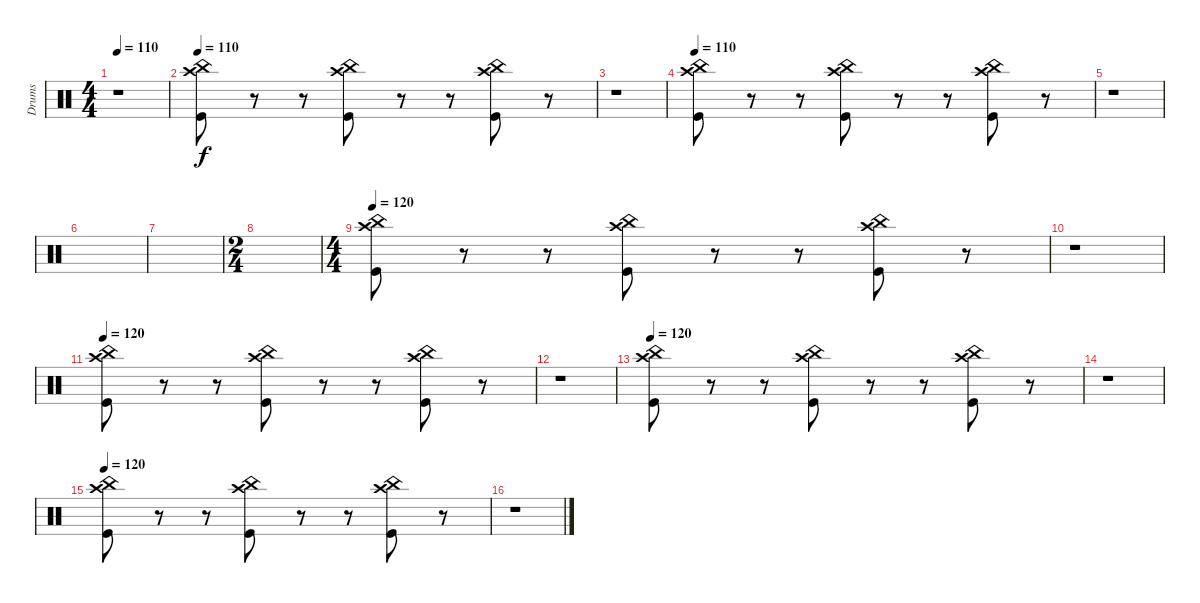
\track ("Drums" "Drums") {instrument percussion}
\staff {score}
\articulation defaults
\ts (4 4)
\tempo 110
\clef neutral
\ks c
r.1{dy f} |
\tempo 110
("Crash high (hit)" "China (hit)" "Kick (hit)").8 r.8 r.8 ("Crash high (hit)" "China (hit)" "Kick (hit)").8 r.8 r.8 ("Crash high (hit)" "China (hit)" "Kick (hit)").8 r.8 |
r.1 |
\tempo 110
("Crash high (hit)" "China (hit)" "Kick (hit)").8 r.8 r.8 ("Crash high (hit)" "China (hit)" "Kick (hit)").8 r.8 r.8 ("Crash high (hit)" "China (hit)" "Kick (hit)").8 r.8 |
r.1 |
|
|
\ts (2 4)
|
\ts (4 4)
\tempo 120
("Crash high (hit)" "China (hit)" "Kick (hit)").8 r.8 r.8 ("Crash high (hit)" "China (hit)" "Kick (hit)").8 r.8 r.8 ("Crash high (hit)" "China (hit)" "Kick (hit)").8 r.8 |
r.1 |
\tempo 120
("Crash high (hit)" "China (hit)" "Kick (hit)").8 r.8 r.8 ("Crash high (hit)" "China (hit)" "Kick (hit)").8 r.8 r.8 ("Crash high (hit)" "China (hit)" "Kick (hit)").8 r.8 |
r.1 |
\tempo 120
("Crash high (hit)" "China (hit)" "Kick (hit)").8 r.8 r.8 ("Crash high (hit)" "China (hit)" "Kick (hit)").8 r.8 r.8 ("Crash high (hit)" "China (hit)" "Kick (hit)").8 r.8 |
r.1 |
\tempo 120
("Crash high (hit)" "China (hit)" "Kick (hit)").8 r.8 r.8 ("Crash high (hit)" "China (hit)" "Kick (hit)").8 r.8 r.8 ("Crash high (hit)" "China (hit)" "Kick (hit)").8 r.8 |
r.1
